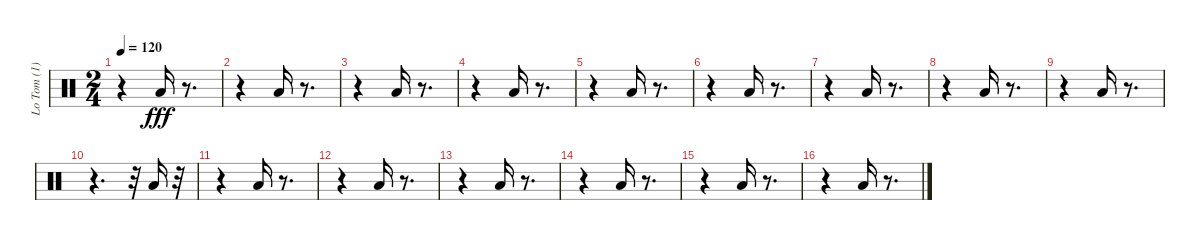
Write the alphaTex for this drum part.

\track ("Lo Tom (1) (1) (1) (1)" "Lo Tom (1)") {instrument percussion}
\staff {score}
\articulation defaults
\ts (2 4)
\tempo 120
\clef neutral
\ks c
r.4{dy fff} "Low Tom (hit)".16 r.8{d} |
r.4 "Low Tom (hit)".16 r.8{d} |
r.4 "Low Tom (hit)".16 r.8{d} |
r.4 "Low Tom (hit)".16 r.8{d} |
r.4 "Low Tom (hit)".16 r.8{d} |
r.4 "Low Tom (hit)".16 r.8{d} |
r.4 "Low Tom (hit)".16 r.8{d} |
r.4 "Low Tom (hit)".16 r.8{d} |
r.4 "Low Tom (hit)".16 r.8{d} |
r.4{d} r.32 "Low Tom (hit)".16 r.32 |
r.4 "Low Tom (hit)".16 r.8{d} |
r.4 "Low Tom (hit)".16 r.8{d} |
r.4 "Low Tom (hit)".16 r.8{d} |
r.4 "Low Tom (hit)".16 r.8{d} |
r.4 "Low Tom (hit)".16 r.8{d} |
r.4 "Low Tom (hit)".16 r.8{d}
